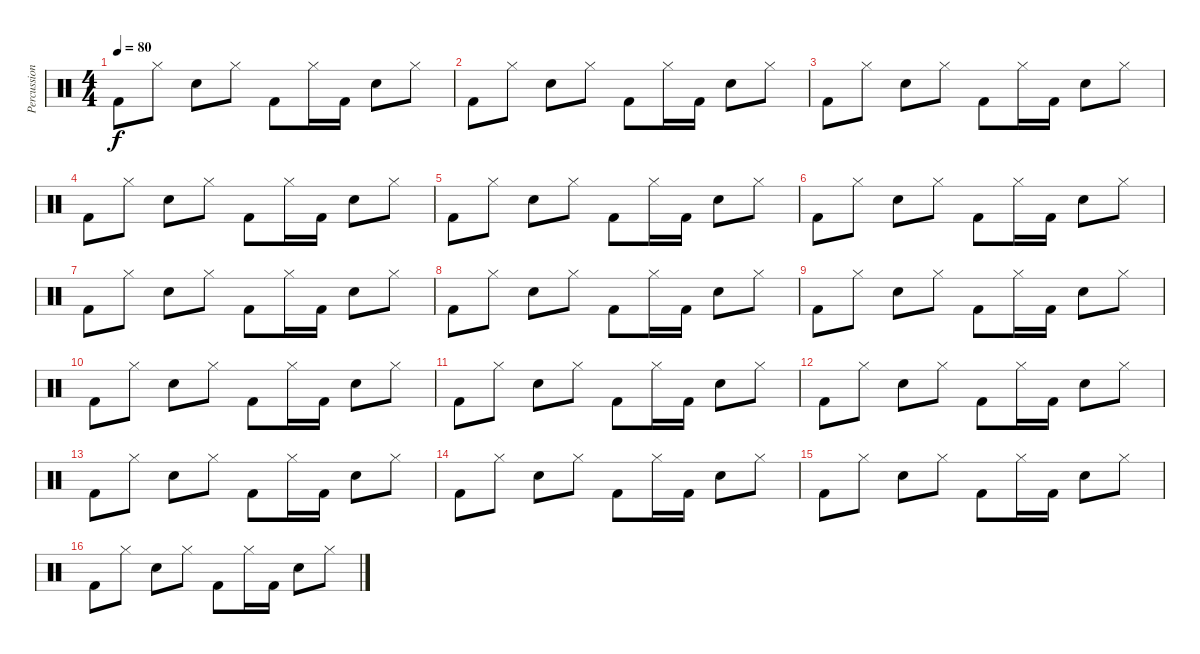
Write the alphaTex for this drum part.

\track ("Percussion" "Percussion") {instrument percussion}
\staff {score}
\articulation defaults
\ts (4 4)
\tempo 80
\clef neutral
\ks c "Kick (hit) 2".8{dy f} "Hi-Hat (closed)".8 "Snare (hit) 2".8 "Hi-Hat (closed)".8 "Kick (hit) 2".8 "Hi-Hat (closed)".16 "Kick (hit) 2".16 "Snare (hit) 2".8 "Hi-Hat (closed)".8
|
"Kick (hit) 2".8 "Hi-Hat (closed)".8 "Snare (hit) 2".8 "Hi-Hat (closed)".8 "Kick (hit) 2".8 "Hi-Hat (closed)".16 "Kick (hit) 2".16 "Snare (hit) 2".8 "Hi-Hat (closed)".8 |
"Kick (hit) 2".8 "Hi-Hat (closed)".8 "Snare (hit) 2".8 "Hi-Hat (closed)".8 "Kick (hit) 2".8 "Hi-Hat (closed)".16 "Kick (hit) 2".16 "Snare (hit) 2".8 "Hi-Hat (closed)".8 |
"Kick (hit) 2".8 "Hi-Hat (closed)".8 "Snare (hit) 2".8 "Hi-Hat (closed)".8 "Kick (hit) 2".8 "Hi-Hat (closed)".16 "Kick (hit) 2".16 "Snare (hit) 2".8 "Hi-Hat (closed)".8 |
"Kick (hit) 2".8 "Hi-Hat (closed)".8 "Snare (hit) 2".8 "Hi-Hat (closed)".8 "Kick (hit) 2".8 "Hi-Hat (closed)".16 "Kick (hit) 2".16 "Snare (hit) 2".8 "Hi-Hat (closed)".8 |
"Kick (hit) 2".8 "Hi-Hat (closed)".8 "Snare (hit) 2".8 "Hi-Hat (closed)".8 "Kick (hit) 2".8 "Hi-Hat (closed)".16 "Kick (hit) 2".16 "Snare (hit) 2".8 "Hi-Hat (closed)".8 |
"Kick (hit) 2".8 "Hi-Hat (closed)".8 "Snare (hit) 2".8 "Hi-Hat (closed)".8 "Kick (hit) 2".8 "Hi-Hat (closed)".16 "Kick (hit) 2".16 "Snare (hit) 2".8 "Hi-Hat (closed)".8 |
"Kick (hit) 2".8 "Hi-Hat (closed)".8 "Snare (hit) 2".8 "Hi-Hat (closed)".8 "Kick (hit) 2".8 "Hi-Hat (closed)".16 "Kick (hit) 2".16 "Snare (hit) 2".8 "Hi-Hat (closed)".8 |
"Kick (hit) 2".8 "Hi-Hat (closed)".8 "Snare (hit) 2".8 "Hi-Hat (closed)".8 "Kick (hit) 2".8 "Hi-Hat (closed)".16 "Kick (hit) 2".16 "Snare (hit) 2".8 "Hi-Hat (closed)".8 |
"Kick (hit) 2".8 "Hi-Hat (closed)".8 "Snare (hit) 2".8 "Hi-Hat (closed)".8 "Kick (hit) 2".8 "Hi-Hat (closed)".16 "Kick (hit) 2".16 "Snare (hit) 2".8 "Hi-Hat (closed)".8 |
"Kick (hit) 2".8 "Hi-Hat (closed)".8 "Snare (hit) 2".8 "Hi-Hat (closed)".8 "Kick (hit) 2".8 "Hi-Hat (closed)".16 "Kick (hit) 2".16 "Snare (hit) 2".8 "Hi-Hat (closed)".8 |
"Kick (hit) 2".8 "Hi-Hat (closed)".8 "Snare (hit) 2".8 "Hi-Hat (closed)".8 "Kick (hit) 2".8 "Hi-Hat (closed)".16 "Kick (hit) 2".16 "Snare (hit) 2".8 "Hi-Hat (closed)".8 |
"Kick (hit) 2".8 "Hi-Hat (closed)".8 "Snare (hit) 2".8 "Hi-Hat (closed)".8 "Kick (hit) 2".8 "Hi-Hat (closed)".16 "Kick (hit) 2".16 "Snare (hit) 2".8 "Hi-Hat (closed)".8 |
"Kick (hit) 2".8 "Hi-Hat (closed)".8 "Snare (hit) 2".8 "Hi-Hat (closed)".8 "Kick (hit) 2".8 "Hi-Hat (closed)".16 "Kick (hit) 2".16 "Snare (hit) 2".8 "Hi-Hat (closed)".8 |
"Kick (hit) 2".8 "Hi-Hat (closed)".8 "Snare (hit) 2".8 "Hi-Hat (closed)".8 "Kick (hit) 2".8 "Hi-Hat (closed)".16 "Kick (hit) 2".16 "Snare (hit) 2".8 "Hi-Hat (closed)".8 |
"Kick (hit) 2".8 "Hi-Hat (closed)".8 "Snare (hit) 2".8 "Hi-Hat (closed)".8 "Kick (hit) 2".8 "Hi-Hat (closed)".16 "Kick (hit) 2".16 "Snare (hit) 2".8 "Hi-Hat (closed)".8
